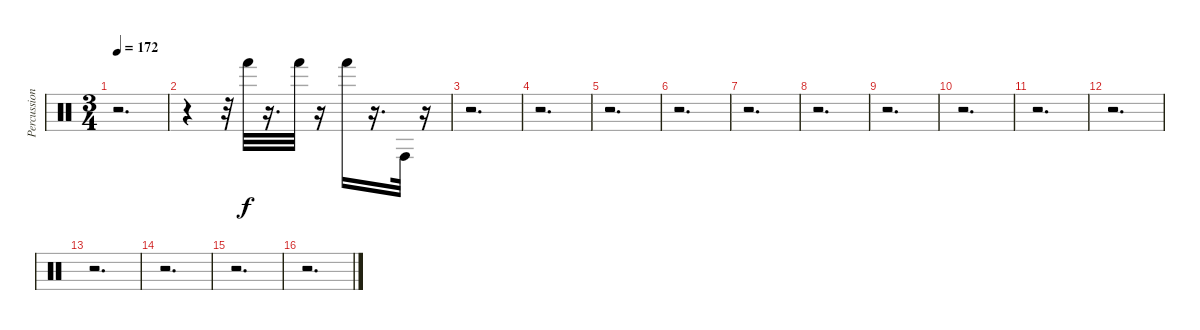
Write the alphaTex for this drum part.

\track ("Percussion" "Percussion") {instrument percussion}
\staff {score}
\articulation defaults
\ts (3 4)
\tempo 172
\clef neutral
\ks c
r.2{d dy f} |
r.4 r.32 "Hand (hit)".32 r.16{d} "Hand (hit)".32 r.16 "Hand (hit)".16 r.16{d} "Conga high (hit)".32 r.16 |
r.2{d} |
r.2{d} |
r.2{d} |
r.2{d} |
r.2{d} |
r.2{d} |
r.2{d} |
r.2{d} |
r.2{d} |
r.2{d} |
r.2{d} |
r.2{d} |
r.2{d} |
r.2{d}
